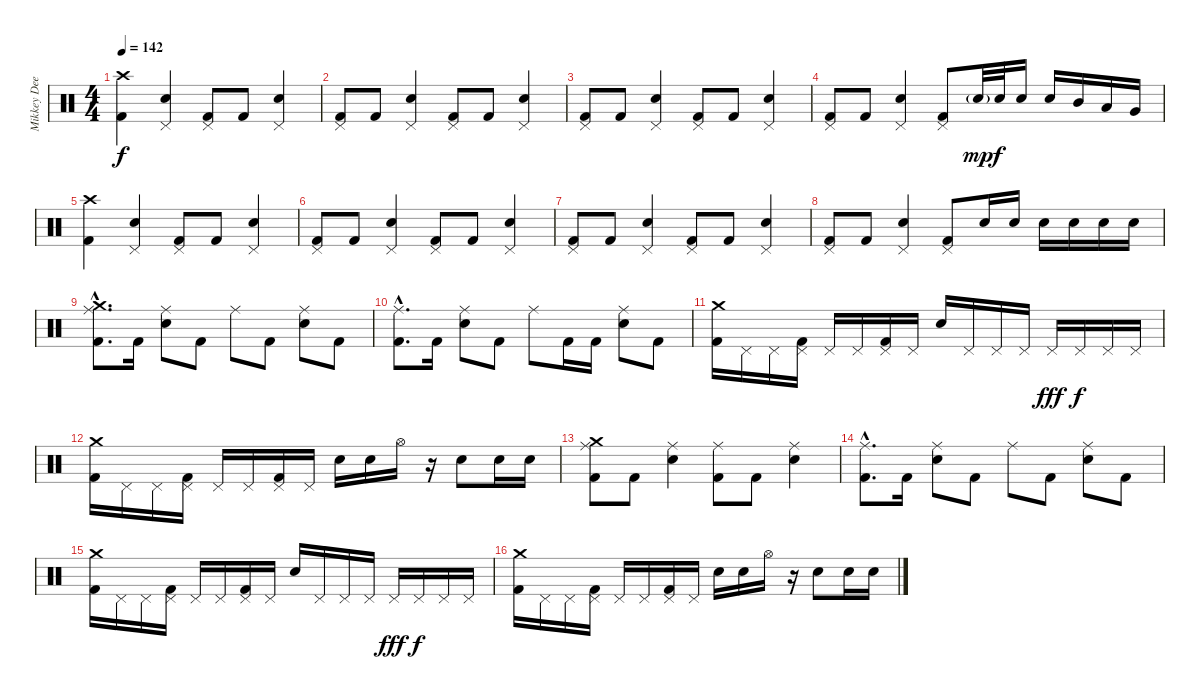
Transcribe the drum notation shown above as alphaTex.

\track ("Mikkey Dee" "Mikkey Dee") {instrument percussion}
\staff {score}
\articulation defaults
\ts (4 4)
\tempo 142
\clef neutral
\ks c
("Kick (hit) 2" "Crash high (hit)").4{dy f} ("Pedal Hi-Hat (hit)" "Snare (hit) 2").4 ("Kick (hit) 2" "Pedal Hi-Hat (hit)").8 "Kick (hit) 2".8 ("Pedal Hi-Hat (hit)" "Snare (hit) 2").4 |
("Kick (hit) 2" "Pedal Hi-Hat (hit)").8 "Kick (hit) 2".8 ("Pedal Hi-Hat (hit)" "Snare (hit) 2").4 ("Kick (hit) 2" "Pedal Hi-Hat (hit)").8 "Kick (hit) 2".8 ("Pedal Hi-Hat (hit)" "Snare (hit) 2").4 |
("Kick (hit) 2" "Pedal Hi-Hat (hit)").8 "Kick (hit) 2".8 ("Pedal Hi-Hat (hit)" "Snare (hit) 2").4 ("Kick (hit) 2" "Pedal Hi-Hat (hit)").8 "Kick (hit) 2".8 ("Pedal Hi-Hat (hit)" "Snare (hit) 2").4 |
("Kick (hit) 2" "Pedal Hi-Hat (hit)").8 "Kick (hit) 2".8 ("Pedal Hi-Hat (hit)" "Snare (hit) 2").4 ("Kick (hit) 2" "Pedal Hi-Hat (hit)").8 "Snare (hit) 2"{g}.32{dy mp} "Snare (hit) 2".32{dy f} "Snare (hit) 2".16 "Snare (hit) 2".16 "Mid Tom (hit)".16 "Low Tom (hit)".16 "Very Low Tom (hit)".16 |
("Kick (hit) 2" "Crash high (hit)").4 ("Pedal Hi-Hat (hit)" "Snare (hit) 2").4 ("Kick (hit) 2" "Pedal Hi-Hat (hit)").8 "Kick (hit) 2".8 ("Pedal Hi-Hat (hit)" "Snare (hit) 2").4 |
("Kick (hit) 2" "Pedal Hi-Hat (hit)").8 "Kick (hit) 2".8 ("Pedal Hi-Hat (hit)" "Snare (hit) 2").4 ("Kick (hit) 2" "Pedal Hi-Hat (hit)").8 "Kick (hit) 2".8 ("Pedal Hi-Hat (hit)" "Snare (hit) 2").4 |
("Kick (hit) 2" "Pedal Hi-Hat (hit)").8 "Kick (hit) 2".8 ("Pedal Hi-Hat (hit)" "Snare (hit) 2").4 ("Kick (hit) 2" "Pedal Hi-Hat (hit)").8 "Kick (hit) 2".8 ("Pedal Hi-Hat (hit)" "Snare (hit) 2").4 |
("Kick (hit) 2" "Pedal Hi-Hat (hit)").8 "Kick (hit) 2".8 ("Pedal Hi-Hat (hit)" "Snare (hit) 2").4 ("Kick (hit) 2" "Pedal Hi-Hat (hit)").8 "Snare (hit) 2".16 "Snare (hit) 2".16 "Snare (hit) 2".16 "Snare (hit) 2".16 "Snare (hit) 2".16 "Snare (hit) 2".16 |
("Kick (hit) 2"{hac} "Ride (middle)"{hac} "Crash medium (hit)"{hac}).8{d} "Kick (hit) 2".16 ("Ride (middle)" "Snare (hit) 2").8 "Kick (hit) 2".8 "Ride (middle)".8 "Kick (hit) 2".8 ("Ride (middle)" "Snare (hit) 2").8 "Kick (hit) 2".8 |
("Kick (hit) 2"{hac} "Ride (middle)"{hac}).8{d} "Kick (hit) 2".16 ("Ride (middle)" "Snare (hit) 2").8 "Kick (hit) 2".8 "Ride (middle)".8 "Kick (hit) 2".16 "Kick (hit) 2".16 ("Ride (middle)" "Snare (hit) 2").8 "Kick (hit) 2".8 |
("Kick (hit) 2" "Crash medium (hit)").16 "Pedal Hi-Hat (hit)".16 "Pedal Hi-Hat (hit)".16 ("Kick (hit) 2" "Pedal Hi-Hat (hit)").16 "Pedal Hi-Hat (hit)".16 "Pedal Hi-Hat (hit)".16 ("Kick (hit) 2" "Pedal Hi-Hat (hit)").16 "Pedal Hi-Hat (hit)".16 "Snare (hit) 2".16 "Pedal Hi-Hat (hit)".16 "Pedal Hi-Hat (hit)".16 "Pedal Hi-Hat (hit)".16 "Pedal Hi-Hat (hit)".16{dy fff} "Pedal Hi-Hat (hit)".16{dy f} "Pedal Hi-Hat (hit)".16 "Pedal Hi-Hat (hit)".16 |
("Kick (hit) 2" "Crash medium (hit)").16 "Pedal Hi-Hat (hit)".16 "Pedal Hi-Hat (hit)".16 ("Kick (hit) 2" "Pedal Hi-Hat (hit)").16 "Pedal Hi-Hat (hit)".16 "Pedal Hi-Hat (hit)".16 ("Kick (hit) 2" "Pedal Hi-Hat (hit)").16 "Pedal Hi-Hat (hit)".16 "Snare (hit) 2".16 "Snare (hit) 2".16 "Hi-Hat (open)".16 r.16 "Snare (hit) 2".8 "Snare (hit) 2".16 "Snare (hit) 2".16 |
("Kick (hit) 2" "Ride (middle)" "Crash medium (hit)").8 "Kick (hit) 2".8 ("Ride (middle)" "Snare (hit) 2").4 ("Kick (hit) 2" "Ride (middle)").8 "Kick (hit) 2".8 ("Ride (middle)" "Snare (hit) 2").4 |
("Kick (hit) 2"{hac} "Ride (middle)"{hac}).8{d} "Kick (hit) 2".16 ("Ride (middle)" "Snare (hit) 2").8 "Kick (hit) 2".8 "Ride (middle)".8 "Kick (hit) 2".8 ("Ride (middle)" "Snare (hit) 2").8 "Kick (hit) 2".8 |
("Kick (hit) 2" "Crash medium (hit)").16 "Pedal Hi-Hat (hit)".16 "Pedal Hi-Hat (hit)".16 ("Kick (hit) 2" "Pedal Hi-Hat (hit)").16 "Pedal Hi-Hat (hit)".16 "Pedal Hi-Hat (hit)".16 ("Kick (hit) 2" "Pedal Hi-Hat (hit)").16 "Pedal Hi-Hat (hit)".16 "Snare (hit) 2".16 "Pedal Hi-Hat (hit)".16 "Pedal Hi-Hat (hit)".16 "Pedal Hi-Hat (hit)".16 "Pedal Hi-Hat (hit)".16{dy fff} "Pedal Hi-Hat (hit)".16{dy f} "Pedal Hi-Hat (hit)".16 "Pedal Hi-Hat (hit)".16 |
("Kick (hit) 2" "Crash medium (hit)").16 "Pedal Hi-Hat (hit)".16 "Pedal Hi-Hat (hit)".16 ("Kick (hit) 2" "Pedal Hi-Hat (hit)").16 "Pedal Hi-Hat (hit)".16 "Pedal Hi-Hat (hit)".16 ("Kick (hit) 2" "Pedal Hi-Hat (hit)").16 "Pedal Hi-Hat (hit)".16 "Snare (hit) 2".16 "Snare (hit) 2".16 "Hi-Hat (open)".16 r.16 "Snare (hit) 2".8 "Snare (hit) 2".16 "Snare (hit) 2".16
